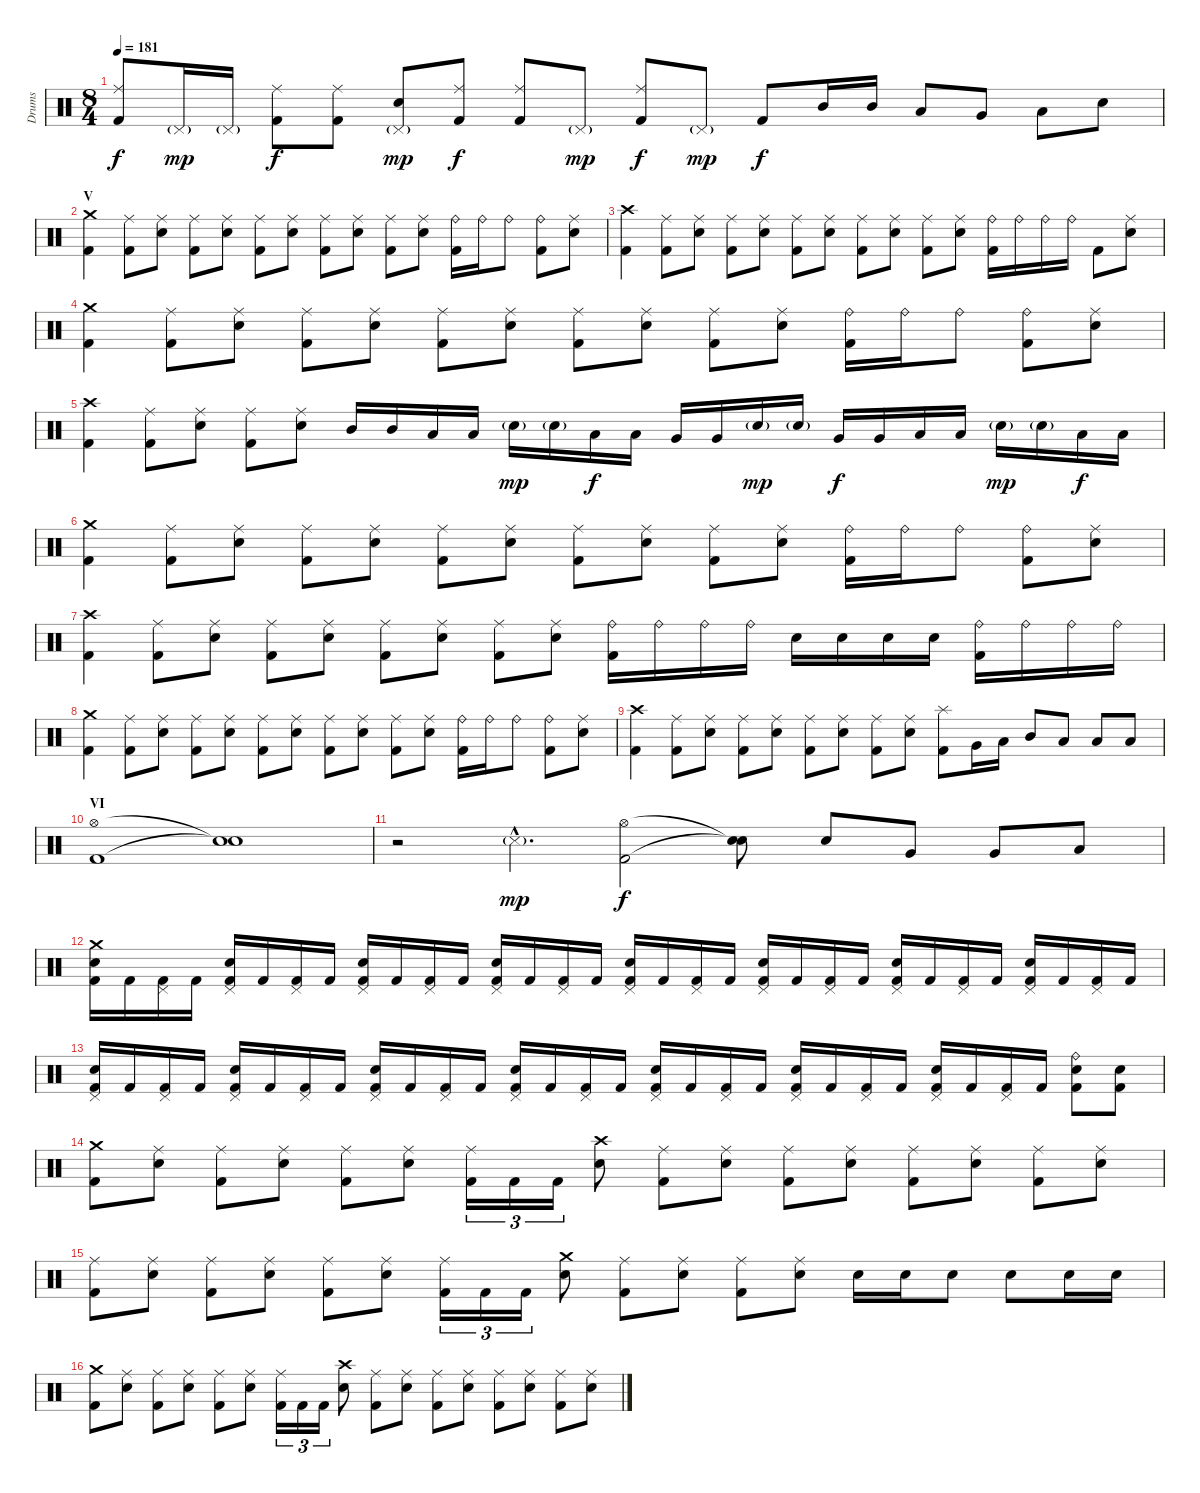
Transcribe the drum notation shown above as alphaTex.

\track ("Drums" "Drums") {instrument percussion}
\staff {score}
\articulation defaults
\ts (8 4)
\tempo 181
\clef neutral
\ks c
("Ride (middle)" "Kick (hit) 2").8{dy f} "Pedal Hi-Hat (hit)"{g}.16{dy mp} "Pedal Hi-Hat (hit)"{g}.16 ("Ride (middle)" "Kick (hit) 2").8{dy f} ("Ride (middle)" "Kick (hit) 2").8 ("Pedal Hi-Hat (hit)"{g} "Electric Snare (hit)").8{dy mp} ("Ride (middle)" "Kick (hit) 2").8{dy f} ("Ride (middle)" "Kick (hit) 2").8 "Pedal Hi-Hat (hit)"{g}.8{dy mp} ("Ride (middle)" "Kick (hit) 2").8{dy f} "Pedal Hi-Hat (hit)"{g}.8{dy mp} "Kick (hit) 2".8{dy f} "Mid Tom (hit)".16 "Mid Tom (hit)".16 "Low Tom (hit)".8 "Very Low Tom (hit)".8 "Low Floor Tom (hit)".8 "Electric Snare (hit)".8 |
\section ("" "V")
("Crash medium (hit)" "Kick (hit) 2").4 ("Ride (middle)" "Kick (hit) 2").8 ("Ride (middle)" "Electric Snare (hit)").8 ("Ride (middle)" "Kick (hit) 2").8 ("Ride (middle)" "Electric Snare (hit)").8 ("Ride (middle)" "Kick (hit) 2").8 ("Ride (middle)" "Electric Snare (hit)").8 ("Ride (middle)" "Kick (hit) 2").8 ("Ride (middle)" "Electric Snare (hit)").8 ("Ride (middle)" "Kick (hit) 2").8 ("Ride (middle)" "Electric Snare (hit)").8 ("Ride (bell)" "Kick (hit) 2").16 "Ride (bell)".16 "Ride (bell)".8 ("Ride (bell)" "Kick (hit) 2").8 ("Ride (middle)" "Electric Snare (hit)").8 |
("Crash high (hit)" "Kick (hit) 2").4 ("Ride (middle)" "Kick (hit) 2").8 ("Ride (middle)" "Electric Snare (hit)").8 ("Ride (middle)" "Kick (hit) 2").8 ("Ride (middle)" "Electric Snare (hit)").8 ("Ride (middle)" "Kick (hit) 2").8 ("Ride (middle)" "Electric Snare (hit)").8 ("Ride (middle)" "Kick (hit) 2").8 ("Ride (middle)" "Electric Snare (hit)").8 ("Ride (middle)" "Kick (hit) 2").8 ("Ride (middle)" "Electric Snare (hit)").8 ("Ride (bell)" "Kick (hit) 2").16 "Ride (bell)".16 "Ride (bell)".16 "Ride (bell)".16 "Kick (hit) 2".8 ("Ride (middle)" "Electric Snare (hit)").8 |
("Crash medium (hit)" "Kick (hit) 2").4 ("Ride (middle)" "Kick (hit) 2").8 ("Ride (middle)" "Electric Snare (hit)").8 ("Ride (middle)" "Kick (hit) 2").8 ("Ride (middle)" "Electric Snare (hit)").8 ("Ride (middle)" "Kick (hit) 2").8 ("Ride (middle)" "Electric Snare (hit)").8 ("Ride (middle)" "Kick (hit) 2").8 ("Ride (middle)" "Electric Snare (hit)").8 ("Ride (middle)" "Kick (hit) 2").8 ("Ride (middle)" "Electric Snare (hit)").8 ("Ride (bell)" "Kick (hit) 2").16 "Ride (bell)".16 "Ride (bell)".8 ("Ride (bell)" "Kick (hit) 2").8 ("Ride (middle)" "Electric Snare (hit)").8 |
("Crash high (hit)" "Kick (hit) 2").4 ("Ride (middle)" "Kick (hit) 2").8 ("Ride (middle)" "Electric Snare (hit)").8 ("Ride (middle)" "Kick (hit) 2").8 ("Ride (middle)" "Electric Snare (hit)").8 "Mid Tom (hit)".16 "Mid Tom (hit)".16 "Low Tom (hit)".16 "Low Tom (hit)".16 "Electric Snare (hit)"{g}.16{dy mp} "Electric Snare (hit)"{g}.16 "Low Tom (hit)".16{dy f} "Low Tom (hit)".16 "Very Low Tom (hit)".16 "Very Low Tom (hit)".16 "Electric Snare (hit)"{g}.16{dy mp} "Electric Snare (hit)"{g}.16 "Very Low Tom (hit)".16{dy f} "Very Low Tom (hit)".16 "Low Floor Tom (hit)".16 "Low Floor Tom (hit)".16 "Electric Snare (hit)"{g}.16{dy mp} "Electric Snare (hit)"{g}.16 "Low Floor Tom (hit)".16{dy f} "Low Floor Tom (hit)".16 |
("Crash medium (hit)" "Kick (hit) 2").4 ("Ride (middle)" "Kick (hit) 2").8 ("Ride (middle)" "Electric Snare (hit)").8 ("Ride (middle)" "Kick (hit) 2").8 ("Ride (middle)" "Electric Snare (hit)").8 ("Ride (middle)" "Kick (hit) 2").8 ("Ride (middle)" "Electric Snare (hit)").8 ("Ride (middle)" "Kick (hit) 2").8 ("Ride (middle)" "Electric Snare (hit)").8 ("Ride (middle)" "Kick (hit) 2").8 ("Ride (middle)" "Electric Snare (hit)").8 ("Ride (bell)" "Kick (hit) 2").16 "Ride (bell)".16 "Ride (bell)".8 ("Ride (bell)" "Kick (hit) 2").8 ("Ride (middle)" "Electric Snare (hit)").8 |
("Crash high (hit)" "Kick (hit) 2").4 ("Ride (middle)" "Kick (hit) 2").8 ("Ride (middle)" "Electric Snare (hit)").8 ("Ride (middle)" "Kick (hit) 2").8 ("Ride (middle)" "Electric Snare (hit)").8 ("Ride (middle)" "Kick (hit) 2").8 ("Ride (middle)" "Electric Snare (hit)").8 ("Ride (middle)" "Kick (hit) 2").8 ("Ride (middle)" "Electric Snare (hit)").8 ("Ride (bell)" "Kick (hit) 2").16 "Ride (bell)".16 "Ride (bell)".16 "Ride (bell)".16 "Electric Snare (hit)".16 "Electric Snare (hit)".16 "Electric Snare (hit)".16 "Electric Snare (hit)".16 ("Ride (bell)" "Kick (hit) 2").16 "Ride (bell)".16 "Ride (bell)".16 "Ride (bell)".16 |
("Crash medium (hit)" "Kick (hit) 2").4 ("Ride (middle)" "Kick (hit) 2").8 ("Ride (middle)" "Electric Snare (hit)").8 ("Ride (middle)" "Kick (hit) 2").8 ("Ride (middle)" "Electric Snare (hit)").8 ("Ride (middle)" "Kick (hit) 2").8 ("Ride (middle)" "Electric Snare (hit)").8 ("Ride (middle)" "Kick (hit) 2").8 ("Ride (middle)" "Electric Snare (hit)").8 ("Ride (middle)" "Kick (hit) 2").8 ("Ride (middle)" "Electric Snare (hit)").8 ("Ride (bell)" "Kick (hit) 2").16 "Ride (bell)".16 "Ride (bell)".8 ("Ride (bell)" "Kick (hit) 2").8 ("Ride (middle)" "Electric Snare (hit)").8 |
("Crash high (hit)" "Kick (hit) 2").4 ("Ride (middle)" "Kick (hit) 2").8 ("Ride (middle)" "Electric Snare (hit)").8 ("Ride (middle)" "Kick (hit) 2").8 ("Ride (middle)" "Electric Snare (hit)").8 ("Ride (middle)" "Kick (hit) 2").8 ("Ride (middle)" "Electric Snare (hit)").8 ("Ride (middle)" "Kick (hit) 2").8 ("Ride (middle)" "Electric Snare (hit)").8 ("Splash (hit)" "Kick (hit) 2").8 "Very Low Tom (hit)".16 "Low Tom (hit)".16 "Mid Tom (hit)".8 "Low Tom (hit)".8 "Low Tom (hit)".8 "Low Tom (hit)".8 |
\section ("" "VI")
("Hi-Hat (open)" "Kick (hit) 2").1 ("Snare (hit)"{t} "Snare (hit)"{t}).1 |
r.2 "Snare (side stick) 3"{g hac}.4{d dy mp} ("Hi-Hat (open)" "Kick (hit) 2").2{dy f} ("Snare (hit)"{t} "Snare (hit)"{t}).8 "Electric Snare (hit)".8 "Very Low Tom (hit)".8 "Very Low Tom (hit)".8 "Low Tom (hit)".8 |
("Crash medium (hit)" "Electric Snare (hit)" "Kick (hit) 2").16 "Kick (hit) 2".16 ("Pedal Hi-Hat (hit)" "Kick (hit) 2").16 "Kick (hit) 2".16 ("Pedal Hi-Hat (hit)" "Electric Snare (hit)" "Kick (hit) 2").16 "Kick (hit) 2".16 ("Pedal Hi-Hat (hit)" "Kick (hit) 2").16 "Kick (hit) 2".16 ("Pedal Hi-Hat (hit)" "Electric Snare (hit)" "Kick (hit) 2").16 "Kick (hit) 2".16 ("Pedal Hi-Hat (hit)" "Kick (hit) 2").16 "Kick (hit) 2".16 ("Pedal Hi-Hat (hit)" "Electric Snare (hit)" "Kick (hit) 2").16 "Kick (hit) 2".16 ("Pedal Hi-Hat (hit)" "Kick (hit) 2").16 "Kick (hit) 2".16 ("Pedal Hi-Hat (hit)" "Electric Snare (hit)" "Kick (hit) 2").16 "Kick (hit) 2".16 ("Pedal Hi-Hat (hit)" "Kick (hit) 2").16 "Kick (hit) 2".16 ("Pedal Hi-Hat (hit)" "Electric Snare (hit)" "Kick (hit) 2").16 "Kick (hit) 2".16 ("Pedal Hi-Hat (hit)" "Kick (hit) 2").16 "Kick (hit) 2".16 ("Pedal Hi-Hat (hit)" "Electric Snare (hit)" "Kick (hit) 2").16 "Kick (hit) 2".16 ("Pedal Hi-Hat (hit)" "Kick (hit) 2").16 "Kick (hit) 2".16 ("Pedal Hi-Hat (hit)" "Electric Snare (hit)" "Kick (hit) 2").16 "Kick (hit) 2".16 ("Pedal Hi-Hat (hit)" "Kick (hit) 2").16 "Kick (hit) 2".16 |
("Pedal Hi-Hat (hit)" "Electric Snare (hit)" "Kick (hit) 2").16 "Kick (hit) 2".16 ("Pedal Hi-Hat (hit)" "Kick (hit) 2").16 "Kick (hit) 2".16 ("Pedal Hi-Hat (hit)" "Electric Snare (hit)" "Kick (hit) 2").16 "Kick (hit) 2".16 ("Pedal Hi-Hat (hit)" "Kick (hit) 2").16 "Kick (hit) 2".16 ("Pedal Hi-Hat (hit)" "Electric Snare (hit)" "Kick (hit) 2").16 "Kick (hit) 2".16 ("Pedal Hi-Hat (hit)" "Kick (hit) 2").16 "Kick (hit) 2".16 ("Pedal Hi-Hat (hit)" "Electric Snare (hit)" "Kick (hit) 2").16 "Kick (hit) 2".16 ("Pedal Hi-Hat (hit)" "Kick (hit) 2").16 "Kick (hit) 2".16 ("Pedal Hi-Hat (hit)" "Electric Snare (hit)" "Kick (hit) 2").16 "Kick (hit) 2".16 ("Pedal Hi-Hat (hit)" "Kick (hit) 2").16 "Kick (hit) 2".16 ("Pedal Hi-Hat (hit)" "Electric Snare (hit)" "Kick (hit) 2").16 "Kick (hit) 2".16 ("Pedal Hi-Hat (hit)" "Kick (hit) 2").16 "Kick (hit) 2".16 ("Pedal Hi-Hat (hit)" "Electric Snare (hit)" "Kick (hit) 2").16 "Kick (hit) 2".16 ("Pedal Hi-Hat (hit)" "Kick (hit) 2").16 "Kick (hit) 2".16 ("Ride (bell)" "Electric Snare (hit)" "Kick (hit) 2").8 ("Electric Snare (hit)" "Kick (hit) 2").8 |
("Crash medium (hit)" "Kick (hit) 2").8 ("Ride (middle)" "Electric Snare (hit)").8 ("Ride (middle)" "Kick (hit) 2").8 ("Ride (middle)" "Electric Snare (hit)").8 ("Ride (middle)" "Kick (hit) 2").8 ("Ride (middle)" "Electric Snare (hit)").8 ("Ride (middle)" "Kick (hit) 2").16{tu (3 2)} "Kick (hit) 2".16{tu (3 2)} "Kick (hit) 2".16{tu (3 2)} ("Crash high (hit)" "Electric Snare (hit)").8 ("Ride (middle)" "Kick (hit) 2").8 ("Ride (middle)" "Electric Snare (hit)").8 ("Ride (middle)" "Kick (hit) 2").8 ("Ride (middle)" "Electric Snare (hit)").8 ("Ride (middle)" "Kick (hit) 2").8 ("Ride (middle)" "Electric Snare (hit)").8 ("Ride (middle)" "Kick (hit) 2").8 ("Ride (middle)" "Electric Snare (hit)").8 |
("Ride (middle)" "Kick (hit) 2").8 ("Ride (middle)" "Electric Snare (hit)").8 ("Ride (middle)" "Kick (hit) 2").8 ("Ride (middle)" "Electric Snare (hit)").8 ("Ride (middle)" "Kick (hit) 2").8 ("Ride (middle)" "Electric Snare (hit)").8 ("Ride (middle)" "Kick (hit) 2").16{tu (3 2)} "Kick (hit) 2".16{tu (3 2)} "Kick (hit) 2".16{tu (3 2)} ("Crash medium (hit)" "Electric Snare (hit)").8 ("Ride (middle)" "Kick (hit) 2").8 ("Ride (middle)" "Electric Snare (hit)").8 ("Ride (middle)" "Kick (hit) 2").8 ("Ride (middle)" "Electric Snare (hit)").8 "Electric Snare (hit)".16 "Electric Snare (hit)".16 "Electric Snare (hit)".8 "Electric Snare (hit)".8 "Electric Snare (hit)".16 "Electric Snare (hit)".16 |
("Crash medium (hit)" "Kick (hit) 2").8 ("Ride (middle)" "Electric Snare (hit)").8 ("Ride (middle)" "Kick (hit) 2").8 ("Ride (middle)" "Electric Snare (hit)").8 ("Ride (middle)" "Kick (hit) 2").8 ("Ride (middle)" "Electric Snare (hit)").8 ("Ride (middle)" "Kick (hit) 2").16{tu (3 2)} "Kick (hit) 2".16{tu (3 2)} "Kick (hit) 2".16{tu (3 2)} ("Crash high (hit)" "Electric Snare (hit)").8 ("Ride (middle)" "Kick (hit) 2").8 ("Ride (middle)" "Electric Snare (hit)").8 ("Ride (middle)" "Kick (hit) 2").8 ("Ride (middle)" "Electric Snare (hit)").8 ("Ride (middle)" "Kick (hit) 2").8 ("Ride (middle)" "Electric Snare (hit)").8 ("Ride (middle)" "Kick (hit) 2").8 ("Ride (middle)" "Electric Snare (hit)").8
